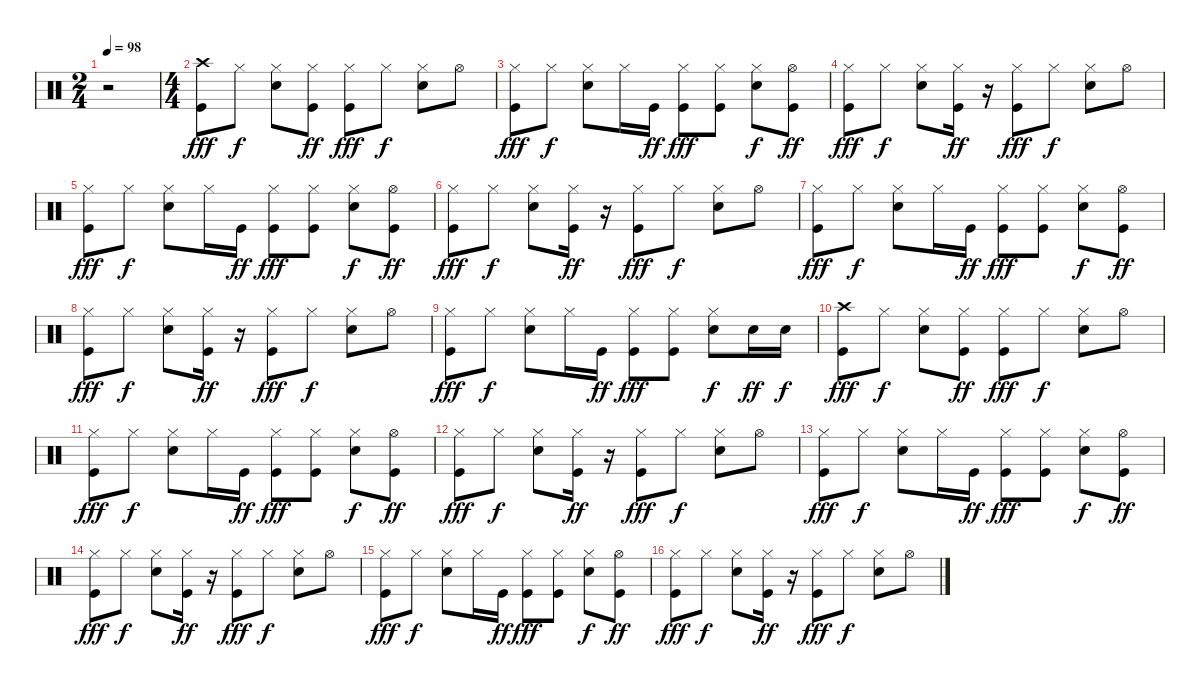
\track "" {instrument percussion}
\staff {score}
\articulation defaults
\ts (2 4)
\tempo 98
\clef neutral
\ks c
r.2{dy fff} |
\ts (4 4)
("Crash high (hit)" "Kick (hit)").8 "Hi-Hat (closed)".8{dy f} ("Hi-Hat (closed)" "Electric Snare (hit)").8 ("Hi-Hat (closed)" "Kick (hit)").8{dy ff} ("Kick (hit)" "Hi-Hat (closed)").8{dy fff} "Hi-Hat (closed)".8{dy f} ("Hi-Hat (closed)" "Electric Snare (hit)").8 "Hi-Hat (open)".8 |
("Hi-Hat (closed)" "Kick (hit)").8{dy fff} "Hi-Hat (closed)".8{dy f} ("Hi-Hat (closed)" "Electric Snare (hit)").8 "Hi-Hat (closed)".16 "Kick (hit)".16{dy ff} ("Kick (hit)" "Hi-Hat (closed)").8{dy fff} ("Hi-Hat (closed)" "Kick (hit)").8 ("Hi-Hat (closed)" "Electric Snare (hit)").8{dy f} ("Hi-Hat (open)" "Kick (hit)").8{dy ff} |
("Hi-Hat (closed)" "Kick (hit)").8{dy fff} "Hi-Hat (closed)".8{dy f} ("Hi-Hat (closed)" "Electric Snare (hit)").8 ("Hi-Hat (closed)" "Kick (hit)").16{dy ff} r.16 ("Kick (hit)" "Hi-Hat (closed)").8{dy fff} "Hi-Hat (closed)".8{dy f} ("Hi-Hat (closed)" "Electric Snare (hit)").8 "Hi-Hat (open)".8 |
("Hi-Hat (closed)" "Kick (hit)").8{dy fff} "Hi-Hat (closed)".8{dy f} ("Hi-Hat (closed)" "Electric Snare (hit)").8 "Hi-Hat (closed)".16 "Kick (hit)".16{dy ff} ("Kick (hit)" "Hi-Hat (closed)").8{dy fff} ("Hi-Hat (closed)" "Kick (hit)").8 ("Hi-Hat (closed)" "Electric Snare (hit)").8{dy f} ("Hi-Hat (open)" "Kick (hit)").8{dy ff} |
("Hi-Hat (closed)" "Kick (hit)").8{dy fff} "Hi-Hat (closed)".8{dy f} ("Hi-Hat (closed)" "Electric Snare (hit)").8 ("Hi-Hat (closed)" "Kick (hit)").16{dy ff} r.16 ("Kick (hit)" "Hi-Hat (closed)").8{dy fff} "Hi-Hat (closed)".8{dy f} ("Hi-Hat (closed)" "Electric Snare (hit)").8 "Hi-Hat (open)".8 |
("Hi-Hat (closed)" "Kick (hit)").8{dy fff} "Hi-Hat (closed)".8{dy f} ("Hi-Hat (closed)" "Electric Snare (hit)").8 "Hi-Hat (closed)".16 "Kick (hit)".16{dy ff} ("Kick (hit)" "Hi-Hat (closed)").8{dy fff} ("Hi-Hat (closed)" "Kick (hit)").8 ("Hi-Hat (closed)" "Electric Snare (hit)").8{dy f} ("Hi-Hat (open)" "Kick (hit)").8{dy ff} |
("Hi-Hat (closed)" "Kick (hit)").8{dy fff} "Hi-Hat (closed)".8{dy f} ("Hi-Hat (closed)" "Electric Snare (hit)").8 ("Hi-Hat (closed)" "Kick (hit)").16{dy ff} r.16 ("Kick (hit)" "Hi-Hat (closed)").8{dy fff} "Hi-Hat (closed)".8{dy f} ("Hi-Hat (closed)" "Electric Snare (hit)").8 "Hi-Hat (open)".8 |
("Hi-Hat (closed)" "Kick (hit)").8{dy fff} "Hi-Hat (closed)".8{dy f} ("Hi-Hat (closed)" "Electric Snare (hit)").8 "Hi-Hat (closed)".16 "Kick (hit)".16{dy ff} ("Kick (hit)" "Hi-Hat (closed)").8{dy fff} ("Hi-Hat (closed)" "Kick (hit)").8 ("Hi-Hat (closed)" "Electric Snare (hit)").8{dy f} "Electric Snare (hit)".16{dy ff} "Electric Snare (hit)".16{dy f} |
("Crash high (hit)" "Kick (hit)").8{dy fff} "Hi-Hat (closed)".8{dy f} ("Hi-Hat (closed)" "Electric Snare (hit)").8 ("Hi-Hat (closed)" "Kick (hit)").8{dy ff} ("Kick (hit)" "Hi-Hat (closed)").8{dy fff} "Hi-Hat (closed)".8{dy f} ("Hi-Hat (closed)" "Electric Snare (hit)").8 "Hi-Hat (open)".8 |
("Hi-Hat (closed)" "Kick (hit)").8{dy fff} "Hi-Hat (closed)".8{dy f} ("Hi-Hat (closed)" "Electric Snare (hit)").8 "Hi-Hat (closed)".16 "Kick (hit)".16{dy ff} ("Kick (hit)" "Hi-Hat (closed)").8{dy fff} ("Hi-Hat (closed)" "Kick (hit)").8 ("Hi-Hat (closed)" "Electric Snare (hit)").8{dy f} ("Hi-Hat (open)" "Kick (hit)").8{dy ff} |
("Hi-Hat (closed)" "Kick (hit)").8{dy fff} "Hi-Hat (closed)".8{dy f} ("Hi-Hat (closed)" "Electric Snare (hit)").8 ("Hi-Hat (closed)" "Kick (hit)").16{dy ff} r.16 ("Kick (hit)" "Hi-Hat (closed)").8{dy fff} "Hi-Hat (closed)".8{dy f} ("Hi-Hat (closed)" "Electric Snare (hit)").8 "Hi-Hat (open)".8 |
("Hi-Hat (closed)" "Kick (hit)").8{dy fff} "Hi-Hat (closed)".8{dy f} ("Hi-Hat (closed)" "Electric Snare (hit)").8 "Hi-Hat (closed)".16 "Kick (hit)".16{dy ff} ("Kick (hit)" "Hi-Hat (closed)").8{dy fff} ("Hi-Hat (closed)" "Kick (hit)").8 ("Hi-Hat (closed)" "Electric Snare (hit)").8{dy f} ("Hi-Hat (open)" "Kick (hit)").8{dy ff} |
("Hi-Hat (closed)" "Kick (hit)").8{dy fff} "Hi-Hat (closed)".8{dy f} ("Hi-Hat (closed)" "Electric Snare (hit)").8 ("Hi-Hat (closed)" "Kick (hit)").16{dy ff} r.16 ("Kick (hit)" "Hi-Hat (closed)").8{dy fff} "Hi-Hat (closed)".8{dy f} ("Hi-Hat (closed)" "Electric Snare (hit)").8 "Hi-Hat (open)".8 |
("Hi-Hat (closed)" "Kick (hit)").8{dy fff} "Hi-Hat (closed)".8{dy f} ("Hi-Hat (closed)" "Electric Snare (hit)").8 "Hi-Hat (closed)".16 "Kick (hit)".16{dy ff} ("Kick (hit)" "Hi-Hat (closed)").8{dy fff} ("Hi-Hat (closed)" "Kick (hit)").8 ("Hi-Hat (closed)" "Electric Snare (hit)").8{dy f} ("Hi-Hat (open)" "Kick (hit)").8{dy ff} |
("Hi-Hat (closed)" "Kick (hit)").8{dy fff} "Hi-Hat (closed)".8{dy f} ("Hi-Hat (closed)" "Electric Snare (hit)").8 ("Hi-Hat (closed)" "Kick (hit)").16{dy ff} r.16 ("Kick (hit)" "Hi-Hat (closed)").8{dy fff} "Hi-Hat (closed)".8{dy f} ("Hi-Hat (closed)" "Electric Snare (hit)").8 "Hi-Hat (open)".8
